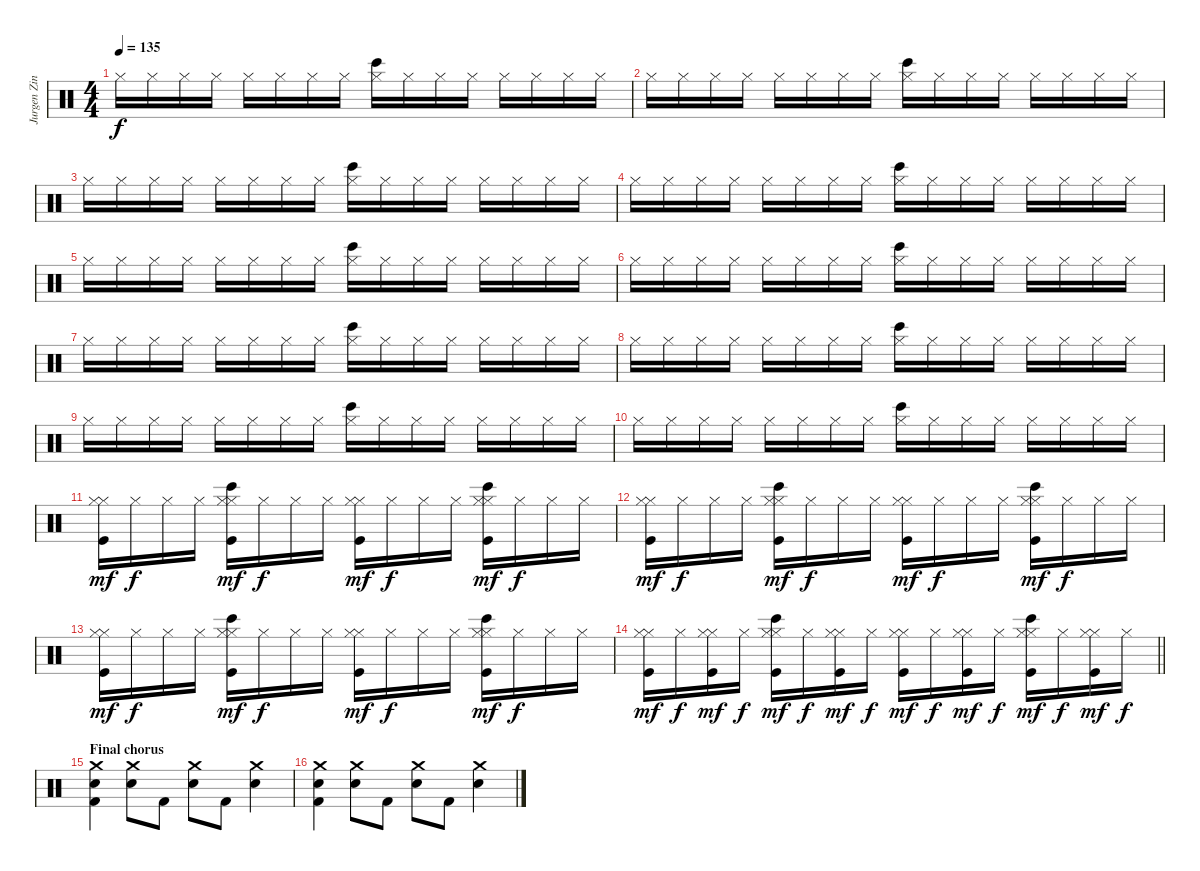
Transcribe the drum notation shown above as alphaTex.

\track ("Jurgen Zing" "Jurgen Zin") {instrument percussion}
\staff {score}
\articulation defaults
\ts (4 4)
\tempo 135
\clef neutral
\ks c "Hi-Hat (closed)".16{dy f} "Hi-Hat (closed)".16 "Hi-Hat (closed)".16 "Hi-Hat (closed)".16 "Hi-Hat (closed)".16 "Hi-Hat (closed)".16 "Hi-Hat (closed)".16 "Hi-Hat (closed)".16
("Hi-Hat (closed)" "Bongo High (hit)").16 "Hi-Hat (closed)".16 "Hi-Hat (closed)".16 "Hi-Hat (closed)".16 "Hi-Hat (closed)".16 "Hi-Hat (closed)".16 "Hi-Hat (closed)".16 "Hi-Hat (closed)".16 |
"Hi-Hat (closed)".16 "Hi-Hat (closed)".16 "Hi-Hat (closed)".16 "Hi-Hat (closed)".16 "Hi-Hat (closed)".16 "Hi-Hat (closed)".16 "Hi-Hat (closed)".16 "Hi-Hat (closed)".16 ("Hi-Hat (closed)" "Bongo High (hit)").16 "Hi-Hat (closed)".16 "Hi-Hat (closed)".16 "Hi-Hat (closed)".16 "Hi-Hat (closed)".16 "Hi-Hat (closed)".16 "Hi-Hat (closed)".16 "Hi-Hat (closed)".16 |
"Hi-Hat (closed)".16 "Hi-Hat (closed)".16 "Hi-Hat (closed)".16 "Hi-Hat (closed)".16 "Hi-Hat (closed)".16 "Hi-Hat (closed)".16 "Hi-Hat (closed)".16 "Hi-Hat (closed)".16 ("Hi-Hat (closed)" "Bongo High (hit)").16 "Hi-Hat (closed)".16 "Hi-Hat (closed)".16 "Hi-Hat (closed)".16 "Hi-Hat (closed)".16 "Hi-Hat (closed)".16 "Hi-Hat (closed)".16 "Hi-Hat (closed)".16 |
"Hi-Hat (closed)".16 "Hi-Hat (closed)".16 "Hi-Hat (closed)".16 "Hi-Hat (closed)".16 "Hi-Hat (closed)".16 "Hi-Hat (closed)".16 "Hi-Hat (closed)".16 "Hi-Hat (closed)".16 ("Hi-Hat (closed)" "Bongo High (hit)").16 "Hi-Hat (closed)".16 "Hi-Hat (closed)".16 "Hi-Hat (closed)".16 "Hi-Hat (closed)".16 "Hi-Hat (closed)".16 "Hi-Hat (closed)".16 "Hi-Hat (closed)".16 |
"Hi-Hat (closed)".16 "Hi-Hat (closed)".16 "Hi-Hat (closed)".16 "Hi-Hat (closed)".16 "Hi-Hat (closed)".16 "Hi-Hat (closed)".16 "Hi-Hat (closed)".16 "Hi-Hat (closed)".16 ("Hi-Hat (closed)" "Bongo High (hit)").16 "Hi-Hat (closed)".16 "Hi-Hat (closed)".16 "Hi-Hat (closed)".16 "Hi-Hat (closed)".16 "Hi-Hat (closed)".16 "Hi-Hat (closed)".16 "Hi-Hat (closed)".16 |
"Hi-Hat (closed)".16 "Hi-Hat (closed)".16 "Hi-Hat (closed)".16 "Hi-Hat (closed)".16 "Hi-Hat (closed)".16 "Hi-Hat (closed)".16 "Hi-Hat (closed)".16 "Hi-Hat (closed)".16 ("Hi-Hat (closed)" "Bongo High (hit)").16 "Hi-Hat (closed)".16 "Hi-Hat (closed)".16 "Hi-Hat (closed)".16 "Hi-Hat (closed)".16 "Hi-Hat (closed)".16 "Hi-Hat (closed)".16 "Hi-Hat (closed)".16 |
"Hi-Hat (closed)".16 "Hi-Hat (closed)".16 "Hi-Hat (closed)".16 "Hi-Hat (closed)".16 "Hi-Hat (closed)".16 "Hi-Hat (closed)".16 "Hi-Hat (closed)".16 "Hi-Hat (closed)".16 ("Hi-Hat (closed)" "Bongo High (hit)").16 "Hi-Hat (closed)".16 "Hi-Hat (closed)".16 "Hi-Hat (closed)".16 "Hi-Hat (closed)".16 "Hi-Hat (closed)".16 "Hi-Hat (closed)".16 "Hi-Hat (closed)".16 |
"Hi-Hat (closed)".16 "Hi-Hat (closed)".16 "Hi-Hat (closed)".16 "Hi-Hat (closed)".16 "Hi-Hat (closed)".16 "Hi-Hat (closed)".16 "Hi-Hat (closed)".16 "Hi-Hat (closed)".16 ("Hi-Hat (closed)" "Bongo High (hit)").16 "Hi-Hat (closed)".16 "Hi-Hat (closed)".16 "Hi-Hat (closed)".16 "Hi-Hat (closed)".16 "Hi-Hat (closed)".16 "Hi-Hat (closed)".16 "Hi-Hat (closed)".16 |
"Hi-Hat (closed)".16 "Hi-Hat (closed)".16 "Hi-Hat (closed)".16 "Hi-Hat (closed)".16 "Hi-Hat (closed)".16 "Hi-Hat (closed)".16 "Hi-Hat (closed)".16 "Hi-Hat (closed)".16 ("Hi-Hat (closed)" "Bongo High (hit)").16 "Hi-Hat (closed)".16 "Hi-Hat (closed)".16 "Hi-Hat (closed)".16 "Hi-Hat (closed)".16 "Hi-Hat (closed)".16 "Hi-Hat (closed)".16 "Hi-Hat (closed)".16 |
"Hi-Hat (closed)".16 "Hi-Hat (closed)".16 "Hi-Hat (closed)".16 "Hi-Hat (closed)".16 "Hi-Hat (closed)".16 "Hi-Hat (closed)".16 "Hi-Hat (closed)".16 "Hi-Hat (closed)".16 ("Hi-Hat (closed)" "Bongo High (hit)").16 "Hi-Hat (closed)".16 "Hi-Hat (closed)".16 "Hi-Hat (closed)".16 "Hi-Hat (closed)".16 "Hi-Hat (closed)".16 "Hi-Hat (closed)".16 "Hi-Hat (closed)".16 |
("Kick (hit)" "Hi-Hat (closed)" "Hi-Hat (closed)").16{dy mf} "Hi-Hat (closed)".16{dy f} "Hi-Hat (closed)".16 "Hi-Hat (closed)".16 ("Kick (hit)" "Hi-Hat (closed)" "Bongo High (hit)" "Hi-Hat (closed)").16{dy mf} "Hi-Hat (closed)".16{dy f} "Hi-Hat (closed)".16 "Hi-Hat (closed)".16 ("Kick (hit)" "Hi-Hat (closed)" "Hi-Hat (closed)").16{dy mf} "Hi-Hat (closed)".16{dy f} "Hi-Hat (closed)".16 "Hi-Hat (closed)".16 ("Kick (hit)" "Hi-Hat (closed)" "Bongo High (hit)" "Hi-Hat (closed)").16{dy mf} "Hi-Hat (closed)".16{dy f} "Hi-Hat (closed)".16 "Hi-Hat (closed)".16 |
("Kick (hit)" "Hi-Hat (closed)" "Hi-Hat (closed)").16{dy mf} "Hi-Hat (closed)".16{dy f} "Hi-Hat (closed)".16 "Hi-Hat (closed)".16 ("Kick (hit)" "Hi-Hat (closed)" "Bongo High (hit)" "Hi-Hat (closed)").16{dy mf} "Hi-Hat (closed)".16{dy f} "Hi-Hat (closed)".16 "Hi-Hat (closed)".16 ("Kick (hit)" "Hi-Hat (closed)" "Hi-Hat (closed)").16{dy mf} "Hi-Hat (closed)".16{dy f} "Hi-Hat (closed)".16 "Hi-Hat (closed)".16 ("Kick (hit)" "Hi-Hat (closed)" "Bongo High (hit)" "Hi-Hat (closed)").16{dy mf} "Hi-Hat (closed)".16{dy f} "Hi-Hat (closed)".16 "Hi-Hat (closed)".16 |
("Kick (hit)" "Hi-Hat (closed)" "Hi-Hat (closed)").16{dy mf} "Hi-Hat (closed)".16{dy f} "Hi-Hat (closed)".16 "Hi-Hat (closed)".16 ("Kick (hit)" "Hi-Hat (closed)" "Bongo High (hit)" "Hi-Hat (closed)").16{dy mf} "Hi-Hat (closed)".16{dy f} "Hi-Hat (closed)".16 "Hi-Hat (closed)".16 ("Kick (hit)" "Hi-Hat (closed)" "Hi-Hat (closed)").16{dy mf} "Hi-Hat (closed)".16{dy f} "Hi-Hat (closed)".16 "Hi-Hat (closed)".16 ("Kick (hit)" "Hi-Hat (closed)" "Bongo High (hit)" "Hi-Hat (closed)").16{dy mf} "Hi-Hat (closed)".16{dy f} "Hi-Hat (closed)".16 "Hi-Hat (closed)".16 |
\barLineRight lightlight
("Kick (hit)" "Hi-Hat (closed)" "Hi-Hat (closed)").16{dy mf} "Hi-Hat (closed)".16{dy f} ("Kick (hit)" "Hi-Hat (closed)" "Hi-Hat (closed)").16{dy mf} "Hi-Hat (closed)".16{dy f} ("Kick (hit)" "Hi-Hat (closed)" "Bongo High (hit)" "Hi-Hat (closed)").16{dy mf} "Hi-Hat (closed)".16{dy f} ("Kick (hit)" "Hi-Hat (closed)" "Hi-Hat (closed)").16{dy mf} "Hi-Hat (closed)".16{dy f} ("Kick (hit)" "Hi-Hat (closed)" "Hi-Hat (closed)").16{dy mf} "Hi-Hat (closed)".16{dy f} ("Kick (hit)" "Hi-Hat (closed)" "Hi-Hat (closed)").16{dy mf} "Hi-Hat (closed)".16{dy f} ("Kick (hit)" "Hi-Hat (closed)" "Bongo High (hit)" "Hi-Hat (closed)").16{dy mf} "Hi-Hat (closed)".16{dy f} ("Kick (hit)" "Hi-Hat (closed)" "Hi-Hat (closed)").16{dy mf} "Hi-Hat (closed)".16{dy f} |
\section ("" "Final chorus")
("Crash medium (hit)" "Electric Snare (hit)" "Kick (hit) 2").4 ("Crash medium (hit)" "Electric Snare (hit)").8 "Kick (hit) 2".8 ("Crash medium (hit)" "Electric Snare (hit)").8 "Kick (hit) 2".8 ("Crash medium (hit)" "Electric Snare (hit)").4 |
("Crash medium (hit)" "Electric Snare (hit)" "Kick (hit) 2").4 ("Crash medium (hit)" "Electric Snare (hit)").8 "Kick (hit) 2".8 ("Crash medium (hit)" "Electric Snare (hit)").8 "Kick (hit) 2".8 ("Crash medium (hit)" "Electric Snare (hit)").4
